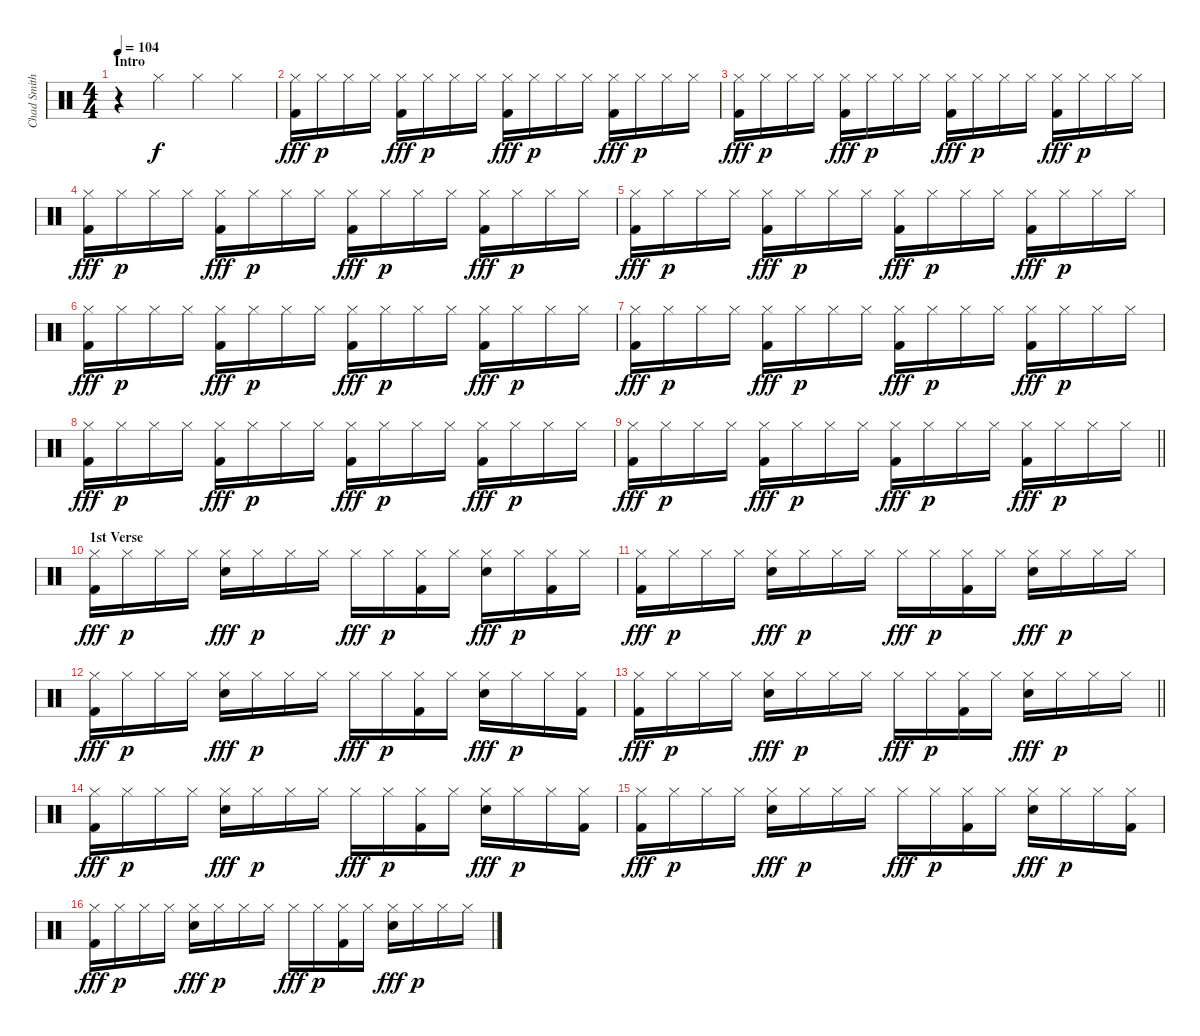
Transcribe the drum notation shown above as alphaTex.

\track ("Chad Smith" "Chad Smith") {instrument percussion}
\staff {score}
\articulation defaults
\ts (4 4)
\section ("" "Intro")
\tempo 104
\clef neutral
\ks c
r.4{dy f} "Hi-Hat (closed)".4 "Hi-Hat (closed)".4 "Hi-Hat (closed)".4 |
("Hi-Hat (closed)" "Kick (hit) 2").16{dy fff} "Hi-Hat (closed)".16{dy p} "Hi-Hat (closed)".16 "Hi-Hat (closed)".16 ("Hi-Hat (closed)" "Kick (hit) 2").16{dy fff} "Hi-Hat (closed)".16{dy p} "Hi-Hat (closed)".16 "Hi-Hat (closed)".16 ("Hi-Hat (closed)" "Kick (hit) 2").16{dy fff} "Hi-Hat (closed)".16{dy p} "Hi-Hat (closed)".16 "Hi-Hat (closed)".16 ("Hi-Hat (closed)" "Kick (hit) 2").16{dy fff} "Hi-Hat (closed)".16{dy p} "Hi-Hat (closed)".16 "Hi-Hat (closed)".16 |
("Hi-Hat (closed)" "Kick (hit) 2").16{dy fff} "Hi-Hat (closed)".16{dy p} "Hi-Hat (closed)".16 "Hi-Hat (closed)".16 ("Hi-Hat (closed)" "Kick (hit) 2").16{dy fff} "Hi-Hat (closed)".16{dy p} "Hi-Hat (closed)".16 "Hi-Hat (closed)".16 ("Hi-Hat (closed)" "Kick (hit) 2").16{dy fff} "Hi-Hat (closed)".16{dy p} "Hi-Hat (closed)".16 "Hi-Hat (closed)".16 ("Hi-Hat (closed)" "Kick (hit) 2").16{dy fff} "Hi-Hat (closed)".16{dy p} "Hi-Hat (closed)".16 "Hi-Hat (closed)".16 |
("Hi-Hat (closed)" "Kick (hit) 2").16{dy fff} "Hi-Hat (closed)".16{dy p} "Hi-Hat (closed)".16 "Hi-Hat (closed)".16 ("Hi-Hat (closed)" "Kick (hit) 2").16{dy fff} "Hi-Hat (closed)".16{dy p} "Hi-Hat (closed)".16 "Hi-Hat (closed)".16 ("Hi-Hat (closed)" "Kick (hit) 2").16{dy fff} "Hi-Hat (closed)".16{dy p} "Hi-Hat (closed)".16 "Hi-Hat (closed)".16 ("Hi-Hat (closed)" "Kick (hit) 2").16{dy fff} "Hi-Hat (closed)".16{dy p} "Hi-Hat (closed)".16 "Hi-Hat (closed)".16 |
("Hi-Hat (closed)" "Kick (hit) 2").16{dy fff} "Hi-Hat (closed)".16{dy p} "Hi-Hat (closed)".16 "Hi-Hat (closed)".16 ("Hi-Hat (closed)" "Kick (hit) 2").16{dy fff} "Hi-Hat (closed)".16{dy p} "Hi-Hat (closed)".16 "Hi-Hat (closed)".16 ("Hi-Hat (closed)" "Kick (hit) 2").16{dy fff} "Hi-Hat (closed)".16{dy p} "Hi-Hat (closed)".16 "Hi-Hat (closed)".16 ("Hi-Hat (closed)" "Kick (hit) 2").16{dy fff} "Hi-Hat (closed)".16{dy p} "Hi-Hat (closed)".16 "Hi-Hat (closed)".16 |
("Hi-Hat (closed)" "Kick (hit) 2").16{dy fff} "Hi-Hat (closed)".16{dy p} "Hi-Hat (closed)".16 "Hi-Hat (closed)".16 ("Hi-Hat (closed)" "Kick (hit) 2").16{dy fff} "Hi-Hat (closed)".16{dy p} "Hi-Hat (closed)".16 "Hi-Hat (closed)".16 ("Hi-Hat (closed)" "Kick (hit) 2").16{dy fff} "Hi-Hat (closed)".16{dy p} "Hi-Hat (closed)".16 "Hi-Hat (closed)".16 ("Hi-Hat (closed)" "Kick (hit) 2").16{dy fff} "Hi-Hat (closed)".16{dy p} "Hi-Hat (closed)".16 "Hi-Hat (closed)".16 |
("Hi-Hat (closed)" "Kick (hit) 2").16{dy fff} "Hi-Hat (closed)".16{dy p} "Hi-Hat (closed)".16 "Hi-Hat (closed)".16 ("Hi-Hat (closed)" "Kick (hit) 2").16{dy fff} "Hi-Hat (closed)".16{dy p} "Hi-Hat (closed)".16 "Hi-Hat (closed)".16 ("Hi-Hat (closed)" "Kick (hit) 2").16{dy fff} "Hi-Hat (closed)".16{dy p} "Hi-Hat (closed)".16 "Hi-Hat (closed)".16 ("Hi-Hat (closed)" "Kick (hit) 2").16{dy fff} "Hi-Hat (closed)".16{dy p} "Hi-Hat (closed)".16 "Hi-Hat (closed)".16 |
("Hi-Hat (closed)" "Kick (hit) 2").16{dy fff} "Hi-Hat (closed)".16{dy p} "Hi-Hat (closed)".16 "Hi-Hat (closed)".16 ("Hi-Hat (closed)" "Kick (hit) 2").16{dy fff} "Hi-Hat (closed)".16{dy p} "Hi-Hat (closed)".16 "Hi-Hat (closed)".16 ("Hi-Hat (closed)" "Kick (hit) 2").16{dy fff} "Hi-Hat (closed)".16{dy p} "Hi-Hat (closed)".16 "Hi-Hat (closed)".16 ("Hi-Hat (closed)" "Kick (hit) 2").16{dy fff} "Hi-Hat (closed)".16{dy p} "Hi-Hat (closed)".16 "Hi-Hat (closed)".16 |
\barLineRight lightlight
("Hi-Hat (closed)" "Kick (hit) 2").16{dy fff} "Hi-Hat (closed)".16{dy p} "Hi-Hat (closed)".16 "Hi-Hat (closed)".16 ("Hi-Hat (closed)" "Kick (hit) 2").16{dy fff} "Hi-Hat (closed)".16{dy p} "Hi-Hat (closed)".16 "Hi-Hat (closed)".16 ("Hi-Hat (closed)" "Kick (hit) 2").16{dy fff} "Hi-Hat (closed)".16{dy p} "Hi-Hat (closed)".16 "Hi-Hat (closed)".16 ("Hi-Hat (closed)" "Kick (hit) 2").16{dy fff} "Hi-Hat (closed)".16{dy p} "Hi-Hat (closed)".16 "Hi-Hat (closed)".16 |
\section ("" "1st Verse")
("Hi-Hat (closed)" "Kick (hit) 2").16{dy fff} "Hi-Hat (closed)".16{dy p} "Hi-Hat (closed)".16 "Hi-Hat (closed)".16 ("Hi-Hat (closed)" "Electric Snare (hit)").16{dy fff} "Hi-Hat (closed)".16{dy p} "Hi-Hat (closed)".16 "Hi-Hat (closed)".16 "Hi-Hat (closed)".16{dy fff} "Hi-Hat (closed)".16{dy p} ("Hi-Hat (closed)" "Kick (hit) 2").16 "Hi-Hat (closed)".16 ("Hi-Hat (closed)" "Electric Snare (hit)").16{dy fff} "Hi-Hat (closed)".16{dy p} ("Hi-Hat (closed)" "Kick (hit) 2").16 "Hi-Hat (closed)".16 |
("Hi-Hat (closed)" "Kick (hit) 2").16{dy fff} "Hi-Hat (closed)".16{dy p} "Hi-Hat (closed)".16 "Hi-Hat (closed)".16 ("Hi-Hat (closed)" "Electric Snare (hit)").16{dy fff} "Hi-Hat (closed)".16{dy p} "Hi-Hat (closed)".16 "Hi-Hat (closed)".16 "Hi-Hat (closed)".16{dy fff} "Hi-Hat (closed)".16{dy p} ("Hi-Hat (closed)" "Kick (hit) 2").16 "Hi-Hat (closed)".16 ("Hi-Hat (closed)" "Electric Snare (hit)").16{dy fff} "Hi-Hat (closed)".16{dy p} "Hi-Hat (closed)".16 "Hi-Hat (closed)".16 |
("Hi-Hat (closed)" "Kick (hit) 2").16{dy fff} "Hi-Hat (closed)".16{dy p} "Hi-Hat (closed)".16 "Hi-Hat (closed)".16 ("Hi-Hat (closed)" "Electric Snare (hit)").16{dy fff} "Hi-Hat (closed)".16{dy p} "Hi-Hat (closed)".16 "Hi-Hat (closed)".16 "Hi-Hat (closed)".16{dy fff} "Hi-Hat (closed)".16{dy p} ("Hi-Hat (closed)" "Kick (hit) 2").16 "Hi-Hat (closed)".16 ("Hi-Hat (closed)" "Electric Snare (hit)").16{dy fff} "Hi-Hat (closed)".16{dy p} "Hi-Hat (closed)".16 ("Hi-Hat (closed)" "Kick (hit) 2").16 |
\barLineRight lightlight
("Hi-Hat (closed)" "Kick (hit) 2").16{dy fff} "Hi-Hat (closed)".16{dy p} "Hi-Hat (closed)".16 "Hi-Hat (closed)".16 ("Hi-Hat (closed)" "Electric Snare (hit)").16{dy fff} "Hi-Hat (closed)".16{dy p} "Hi-Hat (closed)".16 "Hi-Hat (closed)".16 "Hi-Hat (closed)".16{dy fff} "Hi-Hat (closed)".16{dy p} ("Hi-Hat (closed)" "Kick (hit) 2").16 "Hi-Hat (closed)".16 ("Hi-Hat (closed)" "Electric Snare (hit)").16{dy fff} "Hi-Hat (closed)".16{dy p} "Hi-Hat (closed)".16 "Hi-Hat (closed)".16 |
("Hi-Hat (closed)" "Kick (hit) 2").16{dy fff} "Hi-Hat (closed)".16{dy p} "Hi-Hat (closed)".16 "Hi-Hat (closed)".16 ("Hi-Hat (closed)" "Electric Snare (hit)").16{dy fff} "Hi-Hat (closed)".16{dy p} "Hi-Hat (closed)".16 "Hi-Hat (closed)".16 "Hi-Hat (closed)".16{dy fff} "Hi-Hat (closed)".16{dy p} ("Hi-Hat (closed)" "Kick (hit) 2").16 "Hi-Hat (closed)".16 ("Hi-Hat (closed)" "Electric Snare (hit)").16{dy fff} "Hi-Hat (closed)".16{dy p} "Hi-Hat (closed)".16 ("Hi-Hat (closed)" "Kick (hit) 2").16 |
("Hi-Hat (closed)" "Kick (hit) 2").16{dy fff} "Hi-Hat (closed)".16{dy p} "Hi-Hat (closed)".16 "Hi-Hat (closed)".16 ("Hi-Hat (closed)" "Electric Snare (hit)").16{dy fff} "Hi-Hat (closed)".16{dy p} "Hi-Hat (closed)".16 "Hi-Hat (closed)".16 "Hi-Hat (closed)".16{dy fff} "Hi-Hat (closed)".16{dy p} ("Hi-Hat (closed)" "Kick (hit) 2").16 "Hi-Hat (closed)".16 ("Hi-Hat (closed)" "Electric Snare (hit)").16{dy fff} "Hi-Hat (closed)".16{dy p} "Hi-Hat (closed)".16 ("Hi-Hat (closed)" "Kick (hit) 2").16 |
("Hi-Hat (closed)" "Kick (hit) 2").16{dy fff} "Hi-Hat (closed)".16{dy p} "Hi-Hat (closed)".16 "Hi-Hat (closed)".16 ("Hi-Hat (closed)" "Electric Snare (hit)").16{dy fff} "Hi-Hat (closed)".16{dy p} "Hi-Hat (closed)".16 "Hi-Hat (closed)".16 "Hi-Hat (closed)".16{dy fff} "Hi-Hat (closed)".16{dy p} ("Hi-Hat (closed)" "Kick (hit) 2").16 "Hi-Hat (closed)".16 ("Hi-Hat (closed)" "Electric Snare (hit)").16{dy fff} "Hi-Hat (closed)".16{dy p} "Hi-Hat (closed)".16 "Hi-Hat (closed)".16
